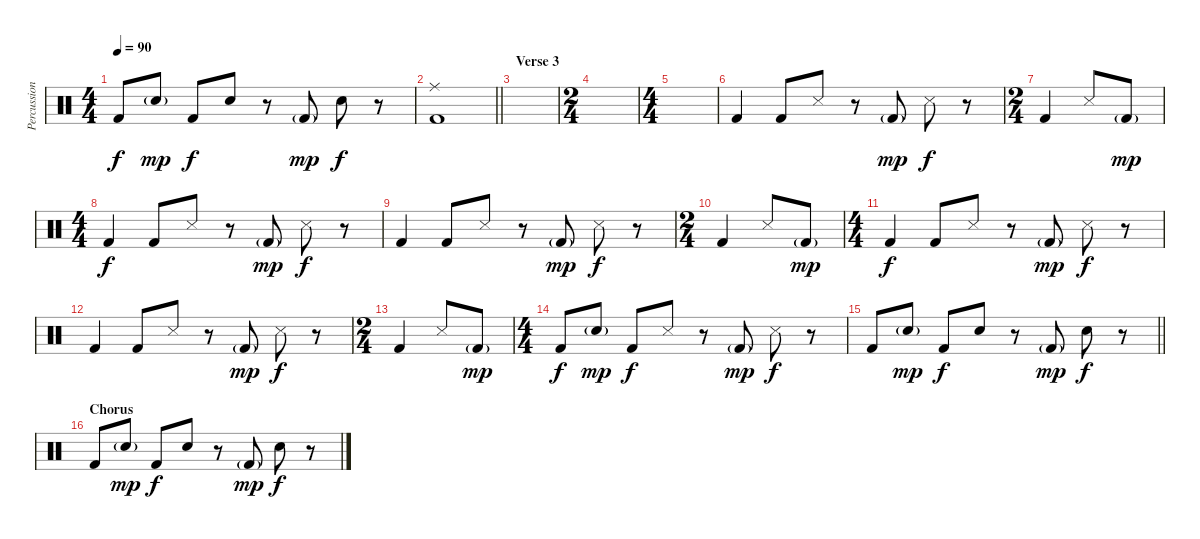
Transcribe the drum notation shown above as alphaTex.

\track ("Percussion" "Percussion") {instrument percussion}
\staff {score}
\articulation defaults
\ts (4 4)
\tempo 90
\clef neutral
\ks c "Kick (hit) 2".8{dy f} "Snare (hit) 2"{g}.8{dy mp} "Kick (hit) 2".8{dy f} "Snare (hit) 2".8
r.8 "Kick (hit) 2"{g}.8{dy mp} "Snare (hit) 2".8{dy f} r.8 |
\barLineRight lightlight
("Ride (middle)" "Kick (hit) 2").1 |
\section ("" "Verse 3")
|
\ts (2 4)
|
\ts (4 4)
|
"Kick (hit) 2".4 "Kick (hit) 2".8 "Snare (side stick) 3".8 r.8 "Kick (hit) 2"{g}.8{dy mp} "Snare (side stick) 3".8{dy f} r.8 |
\ts (2 4)
"Kick (hit) 2".4 "Snare (side stick) 3".8 "Kick (hit) 2"{g}.8{dy mp} |
\ts (4 4)
"Kick (hit) 2".4{dy f} "Kick (hit) 2".8 "Snare (side stick) 3".8 r.8 "Kick (hit) 2"{g}.8{dy mp} "Snare (side stick) 3".8{dy f} r.8 |
"Kick (hit) 2".4 "Kick (hit) 2".8 "Snare (side stick) 3".8 r.8 "Kick (hit) 2"{g}.8{dy mp} "Snare (side stick) 3".8{dy f} r.8 |
\ts (2 4)
"Kick (hit) 2".4 "Snare (side stick) 3".8 "Kick (hit) 2"{g}.8{dy mp} |
\ts (4 4)
"Kick (hit) 2".4{dy f} "Kick (hit) 2".8 "Snare (side stick) 3".8 r.8 "Kick (hit) 2"{g}.8{dy mp} "Snare (side stick) 3".8{dy f} r.8 |
"Kick (hit) 2".4 "Kick (hit) 2".8 "Snare (side stick) 3".8 r.8 "Kick (hit) 2"{g}.8{dy mp} "Snare (side stick) 3".8{dy f} r.8 |
\ts (2 4)
"Kick (hit) 2".4 "Snare (side stick) 3".8 "Kick (hit) 2"{g}.8{dy mp} |
\ts (4 4)
"Kick (hit) 2".8{dy f} "Snare (hit) 2"{g}.8{dy mp} "Kick (hit) 2".8{dy f} "Snare (side stick) 3".8 r.8 "Kick (hit) 2"{g}.8{dy mp} "Snare (side stick) 3".8{dy f} r.8 |
\barLineRight lightlight "Kick (hit) 2".8 "Snare (hit) 2"{g}.8{dy mp} "Kick (hit) 2".8{dy f} "Snare (hit) 2".8
r.8 "Kick (hit) 2"{g}.8{dy mp} "Snare (hit) 2".8{dy f} r.8 |
\section ("" "Chorus")
"Kick (hit) 2".8 "Snare (hit) 2"{g}.8{dy mp} "Kick (hit) 2".8{dy f} "Snare (hit) 2".8 r.8 "Kick (hit) 2"{g}.8{dy mp} "Snare (hit) 2".8{dy f} r.8
